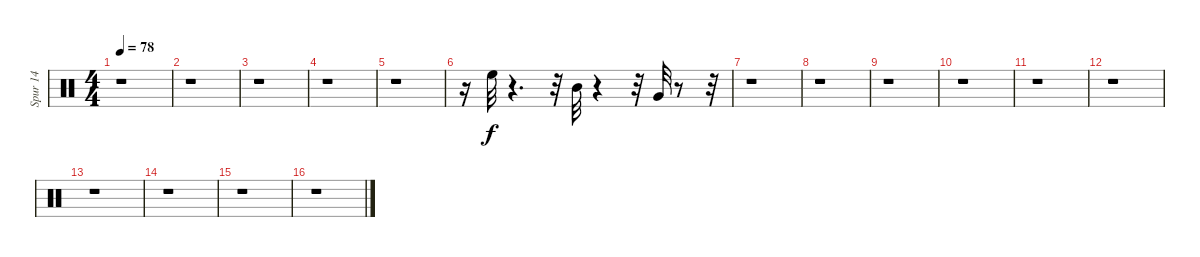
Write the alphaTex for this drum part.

\track ("Spur 14" "Spur 14") {instrument percussion}
\staff {score}
\articulation defaults
\ts (4 4)
\tempo 78
\clef neutral
\ks c
r.1{dy f} |
r.1 |
r.1 |
r.1 |
r.1 |
r.16 "High Floor Tom (hit)".32{volume 14 balance 8} r.4{d} r.32 "Mid Tom (hit)".32 r.4 r.32 "Very Low Tom (hit)".32 r.8 r.32 |
r.1 |
r.1 |
r.1 |
r.1 |
r.1 |
r.1 |
r.1 |
r.1 |
r.1 |
r.1
